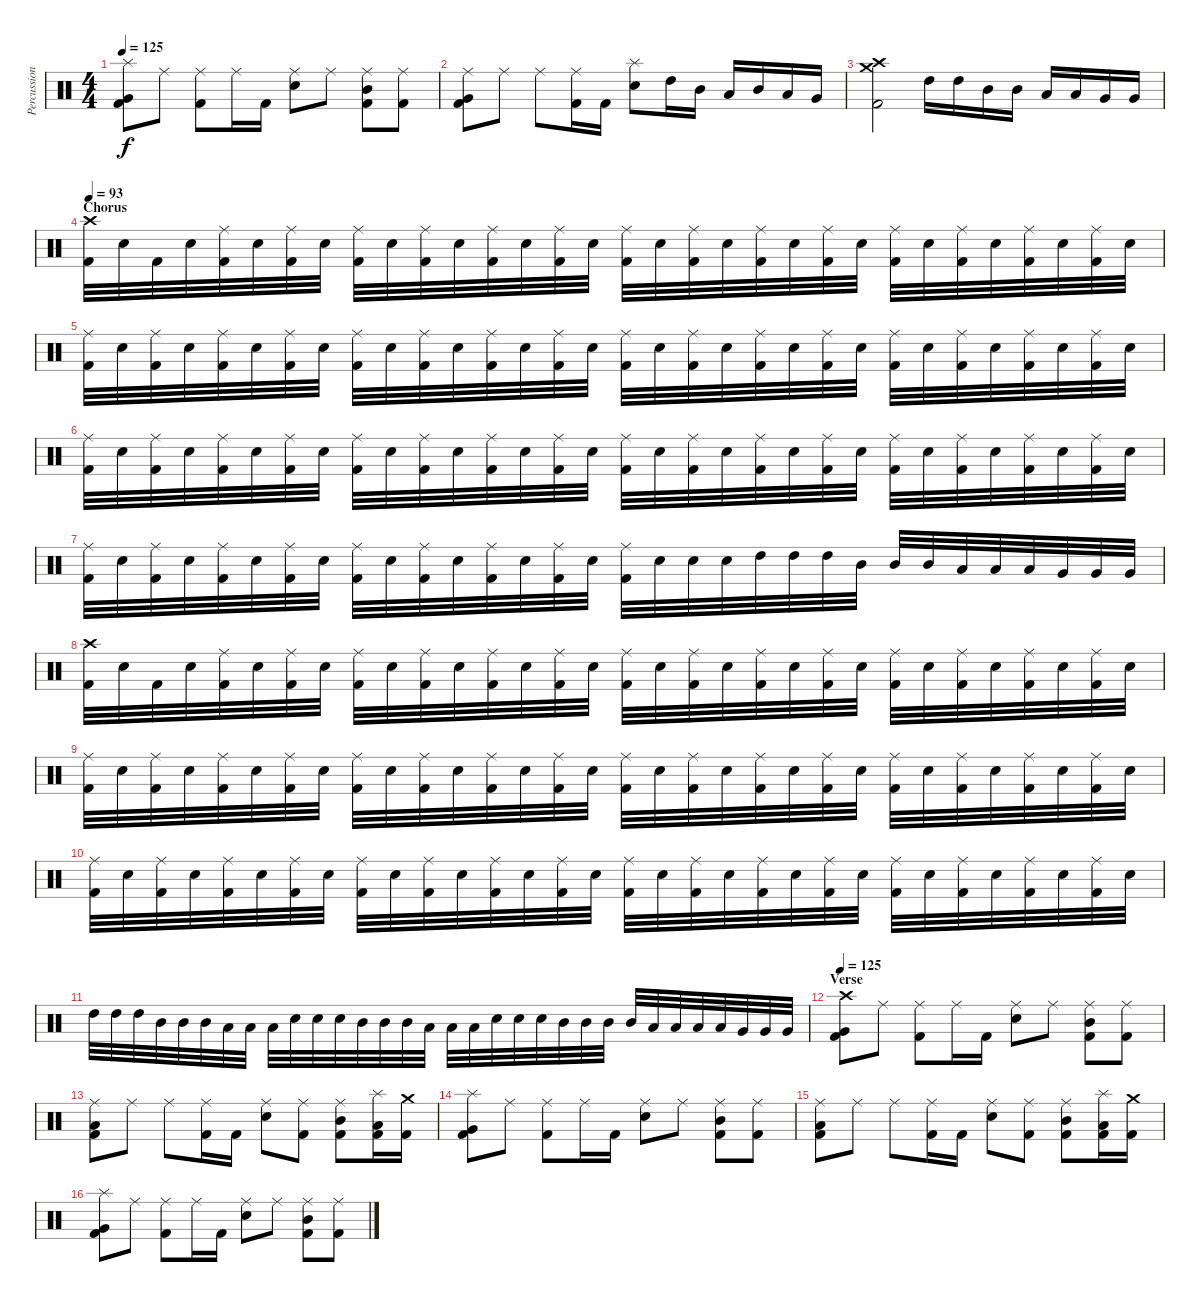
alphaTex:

\track ("Percussion" "Percussion") {instrument percussion}
\staff {score}
\articulation defaults
\ts (4 4)
\tempo 125
\clef neutral
\ks c
("Splash (hit)" "Very Low Tom (hit)" "Kick (hit) 2").8{dy f} "Ride (middle)".8 ("Ride (middle)" "Kick (hit) 2").8 "Ride (middle)".16 "Kick (hit) 2".16 ("Ride (middle)" "Snare (hit) 2").8 "Ride (middle)".8 ("Ride (middle)" "Mid Tom (hit)" "Kick (hit) 2").8 ("Ride (middle)" "Kick (hit) 2").8 |
("Ride (middle)" "Very Low Tom (hit)" "Kick (hit) 2").8 "Ride (middle)".8 "Ride (middle)".8 ("Ride (middle)" "Kick (hit) 2").16 "Kick (hit) 2".16 ("Splash (hit)" "Snare (hit) 2").8 "High Tom (hit)".16 "Mid Tom (hit)".16 "Low Tom (hit)".16 "Mid Tom (hit)".16 "Low Tom (hit)".16 "Very Low Tom (hit)".16 |
("Crash high (hit)" "Crash medium (hit)" "Kick (hit) 2").2 "High Tom (hit)".16 "High Tom (hit)".16 "Mid Tom (hit)".16 "Mid Tom (hit)".16 "Low Tom (hit)".16 "Low Tom (hit)".16 "Very Low Tom (hit)".16 "Very Low Tom (hit)".16 |
\section ("" "Chorus")
\tempo 93
("Crash high (hit)" "Kick (hit) 2").32 "Snare (hit) 2".32 "Kick (hit) 2".32 "Snare (hit) 2".32 ("Ride (middle)" "Kick (hit) 2").32 "Snare (hit) 2".32 ("Ride (middle)" "Kick (hit) 2").32 "Snare (hit) 2".32 ("Ride (middle)" "Kick (hit) 2").32 "Snare (hit) 2".32 ("Ride (middle)" "Kick (hit) 2").32 "Snare (hit) 2".32 ("Ride (middle)" "Kick (hit) 2").32 "Snare (hit) 2".32 ("Ride (middle)" "Kick (hit) 2").32 "Snare (hit) 2".32 ("Ride (middle)" "Kick (hit) 2").32 "Snare (hit) 2".32 ("Ride (middle)" "Kick (hit) 2").32 "Snare (hit) 2".32 ("Ride (middle)" "Kick (hit) 2").32 "Snare (hit) 2".32 ("Ride (middle)" "Kick (hit) 2").32 "Snare (hit) 2".32 ("Ride (middle)" "Kick (hit) 2").32 "Snare (hit) 2".32 ("Ride (middle)" "Kick (hit) 2").32 "Snare (hit) 2".32 ("Ride (middle)" "Kick (hit) 2").32 "Snare (hit) 2".32 ("Ride (middle)" "Kick (hit) 2").32 "Snare (hit) 2".32 |
("Ride (middle)" "Kick (hit) 2").32 "Snare (hit) 2".32 ("Ride (middle)" "Kick (hit) 2").32 "Snare (hit) 2".32 ("Ride (middle)" "Kick (hit) 2").32 "Snare (hit) 2".32 ("Ride (middle)" "Kick (hit) 2").32 "Snare (hit) 2".32 ("Ride (middle)" "Kick (hit) 2").32 "Snare (hit) 2".32 ("Ride (middle)" "Kick (hit) 2").32 "Snare (hit) 2".32 ("Ride (middle)" "Kick (hit) 2").32 "Snare (hit) 2".32 ("Ride (middle)" "Kick (hit) 2").32 "Snare (hit) 2".32 ("Ride (middle)" "Kick (hit) 2").32 "Snare (hit) 2".32 ("Ride (middle)" "Kick (hit) 2").32 "Snare (hit) 2".32 ("Ride (middle)" "Kick (hit) 2").32 "Snare (hit) 2".32 ("Ride (middle)" "Kick (hit) 2").32 "Snare (hit) 2".32 ("Ride (middle)" "Kick (hit) 2").32 "Snare (hit) 2".32 ("Ride (middle)" "Kick (hit) 2").32 "Snare (hit) 2".32 ("Ride (middle)" "Kick (hit) 2").32 "Snare (hit) 2".32 ("Ride (middle)" "Kick (hit) 2").32 "Snare (hit) 2".32 |
("Ride (middle)" "Kick (hit) 2").32 "Snare (hit) 2".32 ("Ride (middle)" "Kick (hit) 2").32 "Snare (hit) 2".32 ("Ride (middle)" "Kick (hit) 2").32 "Snare (hit) 2".32 ("Ride (middle)" "Kick (hit) 2").32 "Snare (hit) 2".32 ("Ride (middle)" "Kick (hit) 2").32 "Snare (hit) 2".32 ("Ride (middle)" "Kick (hit) 2").32 "Snare (hit) 2".32 ("Ride (middle)" "Kick (hit) 2").32 "Snare (hit) 2".32 ("Ride (middle)" "Kick (hit) 2").32 "Snare (hit) 2".32 ("Ride (middle)" "Kick (hit) 2").32 "Snare (hit) 2".32 ("Ride (middle)" "Kick (hit) 2").32 "Snare (hit) 2".32 ("Ride (middle)" "Kick (hit) 2").32 "Snare (hit) 2".32 ("Ride (middle)" "Kick (hit) 2").32 "Snare (hit) 2".32 ("Ride (middle)" "Kick (hit) 2").32 "Snare (hit) 2".32 ("Ride (middle)" "Kick (hit) 2").32 "Snare (hit) 2".32 ("Ride (middle)" "Kick (hit) 2").32 "Snare (hit) 2".32 ("Ride (middle)" "Kick (hit) 2").32 "Snare (hit) 2".32 |
("Ride (middle)" "Kick (hit) 2").32 "Snare (hit) 2".32 ("Ride (middle)" "Kick (hit) 2").32 "Snare (hit) 2".32 ("Ride (middle)" "Kick (hit) 2").32 "Snare (hit) 2".32 ("Ride (middle)" "Kick (hit) 2").32 "Snare (hit) 2".32 ("Ride (middle)" "Kick (hit) 2").32 "Snare (hit) 2".32 ("Ride (middle)" "Kick (hit) 2").32 "Snare (hit) 2".32 ("Ride (middle)" "Kick (hit) 2").32 "Snare (hit) 2".32 ("Ride (middle)" "Kick (hit) 2").32 "Snare (hit) 2".32 ("Ride (middle)" "Kick (hit) 2").32 "Snare (hit) 2".32 "Snare (hit) 2".32 "Snare (hit) 2".32 "High Tom (hit)".32 "High Tom (hit)".32 "High Tom (hit)".32 "Mid Tom (hit)".32 "Mid Tom (hit)".32 "Mid Tom (hit)".32 "Low Tom (hit)".32 "Low Tom (hit)".32 "Low Tom (hit)".32 "Very Low Tom (hit)".32 "Very Low Tom (hit)".32 "Very Low Tom (hit)".32 |
("Crash high (hit)" "Kick (hit) 2").32 "Snare (hit) 2".32 "Kick (hit) 2".32 "Snare (hit) 2".32 ("Ride (middle)" "Kick (hit) 2").32 "Snare (hit) 2".32 ("Ride (middle)" "Kick (hit) 2").32 "Snare (hit) 2".32 ("Ride (middle)" "Kick (hit) 2").32 "Snare (hit) 2".32 ("Ride (middle)" "Kick (hit) 2").32 "Snare (hit) 2".32 ("Ride (middle)" "Kick (hit) 2").32 "Snare (hit) 2".32 ("Ride (middle)" "Kick (hit) 2").32 "Snare (hit) 2".32 ("Ride (middle)" "Kick (hit) 2").32 "Snare (hit) 2".32 ("Ride (middle)" "Kick (hit) 2").32 "Snare (hit) 2".32 ("Ride (middle)" "Kick (hit) 2").32 "Snare (hit) 2".32 ("Ride (middle)" "Kick (hit) 2").32 "Snare (hit) 2".32 ("Ride (middle)" "Kick (hit) 2").32 "Snare (hit) 2".32 ("Ride (middle)" "Kick (hit) 2").32 "Snare (hit) 2".32 ("Ride (middle)" "Kick (hit) 2").32 "Snare (hit) 2".32 ("Ride (middle)" "Kick (hit) 2").32 "Snare (hit) 2".32 |
("Ride (middle)" "Kick (hit) 2").32 "Snare (hit) 2".32 ("Ride (middle)" "Kick (hit) 2").32 "Snare (hit) 2".32 ("Ride (middle)" "Kick (hit) 2").32 "Snare (hit) 2".32 ("Ride (middle)" "Kick (hit) 2").32 "Snare (hit) 2".32 ("Ride (middle)" "Kick (hit) 2").32 "Snare (hit) 2".32 ("Ride (middle)" "Kick (hit) 2").32 "Snare (hit) 2".32 ("Ride (middle)" "Kick (hit) 2").32 "Snare (hit) 2".32 ("Ride (middle)" "Kick (hit) 2").32 "Snare (hit) 2".32 ("Ride (middle)" "Kick (hit) 2").32 "Snare (hit) 2".32 ("Ride (middle)" "Kick (hit) 2").32 "Snare (hit) 2".32 ("Ride (middle)" "Kick (hit) 2").32 "Snare (hit) 2".32 ("Ride (middle)" "Kick (hit) 2").32 "Snare (hit) 2".32 ("Ride (middle)" "Kick (hit) 2").32 "Snare (hit) 2".32 ("Ride (middle)" "Kick (hit) 2").32 "Snare (hit) 2".32 ("Ride (middle)" "Kick (hit) 2").32 "Snare (hit) 2".32 ("Ride (middle)" "Kick (hit) 2").32 "Snare (hit) 2".32 |
("Ride (middle)" "Kick (hit) 2").32 "Snare (hit) 2".32 ("Ride (middle)" "Kick (hit) 2").32 "Snare (hit) 2".32 ("Ride (middle)" "Kick (hit) 2").32 "Snare (hit) 2".32 ("Ride (middle)" "Kick (hit) 2").32 "Snare (hit) 2".32 ("Ride (middle)" "Kick (hit) 2").32 "Snare (hit) 2".32 ("Ride (middle)" "Kick (hit) 2").32 "Snare (hit) 2".32 ("Ride (middle)" "Kick (hit) 2").32 "Snare (hit) 2".32 ("Ride (middle)" "Kick (hit) 2").32 "Snare (hit) 2".32 ("Ride (middle)" "Kick (hit) 2").32 "Snare (hit) 2".32 ("Ride (middle)" "Kick (hit) 2").32 "Snare (hit) 2".32 ("Ride (middle)" "Kick (hit) 2").32 "Snare (hit) 2".32 ("Ride (middle)" "Kick (hit) 2").32 "Snare (hit) 2".32 ("Ride (middle)" "Kick (hit) 2").32 "Snare (hit) 2".32 ("Ride (middle)" "Kick (hit) 2").32 "Snare (hit) 2".32 ("Ride (middle)" "Kick (hit) 2").32 "Snare (hit) 2".32 ("Ride (middle)" "Kick (hit) 2").32 "Snare (hit) 2".32 |
"High Tom (hit)".32 "High Tom (hit)".32 "High Tom (hit)".32 "Mid Tom (hit)".32 "Mid Tom (hit)".32 "Mid Tom (hit)".32 "Low Tom (hit)".32 "Low Tom (hit)".32 "Low Tom (hit)".32 "Snare (hit) 2".32 "Snare (hit) 2".32 "Snare (hit) 2".32 "Mid Tom (hit)".32 "Mid Tom (hit)".32 "Mid Tom (hit)".32 "Low Tom (hit)".32 "Low Tom (hit)".32 "Low Tom (hit)".32 "Snare (hit) 2".32 "Snare (hit) 2".32 "Snare (hit) 2".32 "Mid Tom (hit)".32 "Mid Tom (hit)".32 "Mid Tom (hit)".32 "Mid Tom (hit)".32 "Low Tom (hit)".32 "Low Tom (hit)".32 "Low Tom (hit)".32 "Low Tom (hit)".32 "Very Low Tom (hit)".32 "Very Low Tom (hit)".32 "Very Low Tom (hit)".32 |
\section ("" "Verse")
\tempo 125
("Crash high (hit)" "Very Low Tom (hit)" "Kick (hit) 2").8 "Ride (middle)".8 ("Ride (middle)" "Kick (hit) 2").8 "Ride (middle)".16 "Kick (hit) 2".16 ("Ride (middle)" "Snare (hit) 2").8 "Ride (middle)".8 ("Ride (middle)" "Mid Tom (hit)" "Kick (hit) 2").8 ("Ride (middle)" "Kick (hit) 2").8 |
("Ride (middle)" "Low Tom (hit)" "Kick (hit) 2").8 "Ride (middle)".8 "Ride (middle)".8 ("Ride (middle)" "Kick (hit) 2").16 "Kick (hit) 2".16 ("Ride (middle)" "Snare (hit) 2").8 ("Ride (middle)" "Kick (hit) 2").8 ("Ride (middle)" "Mid Tom (hit)" "Kick (hit) 2").8 ("Splash (hit)" "Low Tom (hit)" "Kick (hit) 2").16 ("Crash medium (hit)" "Kick (hit) 2").16 |
("Splash (hit)" "Very Low Tom (hit)" "Kick (hit) 2").8 "Ride (middle)".8 ("Ride (middle)" "Kick (hit) 2").8 "Ride (middle)".16 "Kick (hit) 2".16 ("Ride (middle)" "Snare (hit) 2").8 "Ride (middle)".8 ("Ride (middle)" "Mid Tom (hit)" "Kick (hit) 2").8 ("Ride (middle)" "Kick (hit) 2").8 |
("Ride (middle)" "Low Tom (hit)" "Kick (hit) 2").8 "Ride (middle)".8 "Ride (middle)".8 ("Ride (middle)" "Kick (hit) 2").16 "Kick (hit) 2".16 ("Ride (middle)" "Snare (hit) 2").8 ("Ride (middle)" "Kick (hit) 2").8 ("Ride (middle)" "Mid Tom (hit)" "Kick (hit) 2").8 ("Splash (hit)" "Low Tom (hit)" "Kick (hit) 2").16 ("Crash medium (hit)" "Kick (hit) 2").16 |
("Splash (hit)" "Very Low Tom (hit)" "Kick (hit) 2").8 "Ride (middle)".8 ("Ride (middle)" "Kick (hit) 2").8 "Ride (middle)".16 "Kick (hit) 2".16 ("Ride (middle)" "Snare (hit) 2").8 "Ride (middle)".8 ("Ride (middle)" "Mid Tom (hit)" "Kick (hit) 2").8 ("Ride (middle)" "Kick (hit) 2").8
